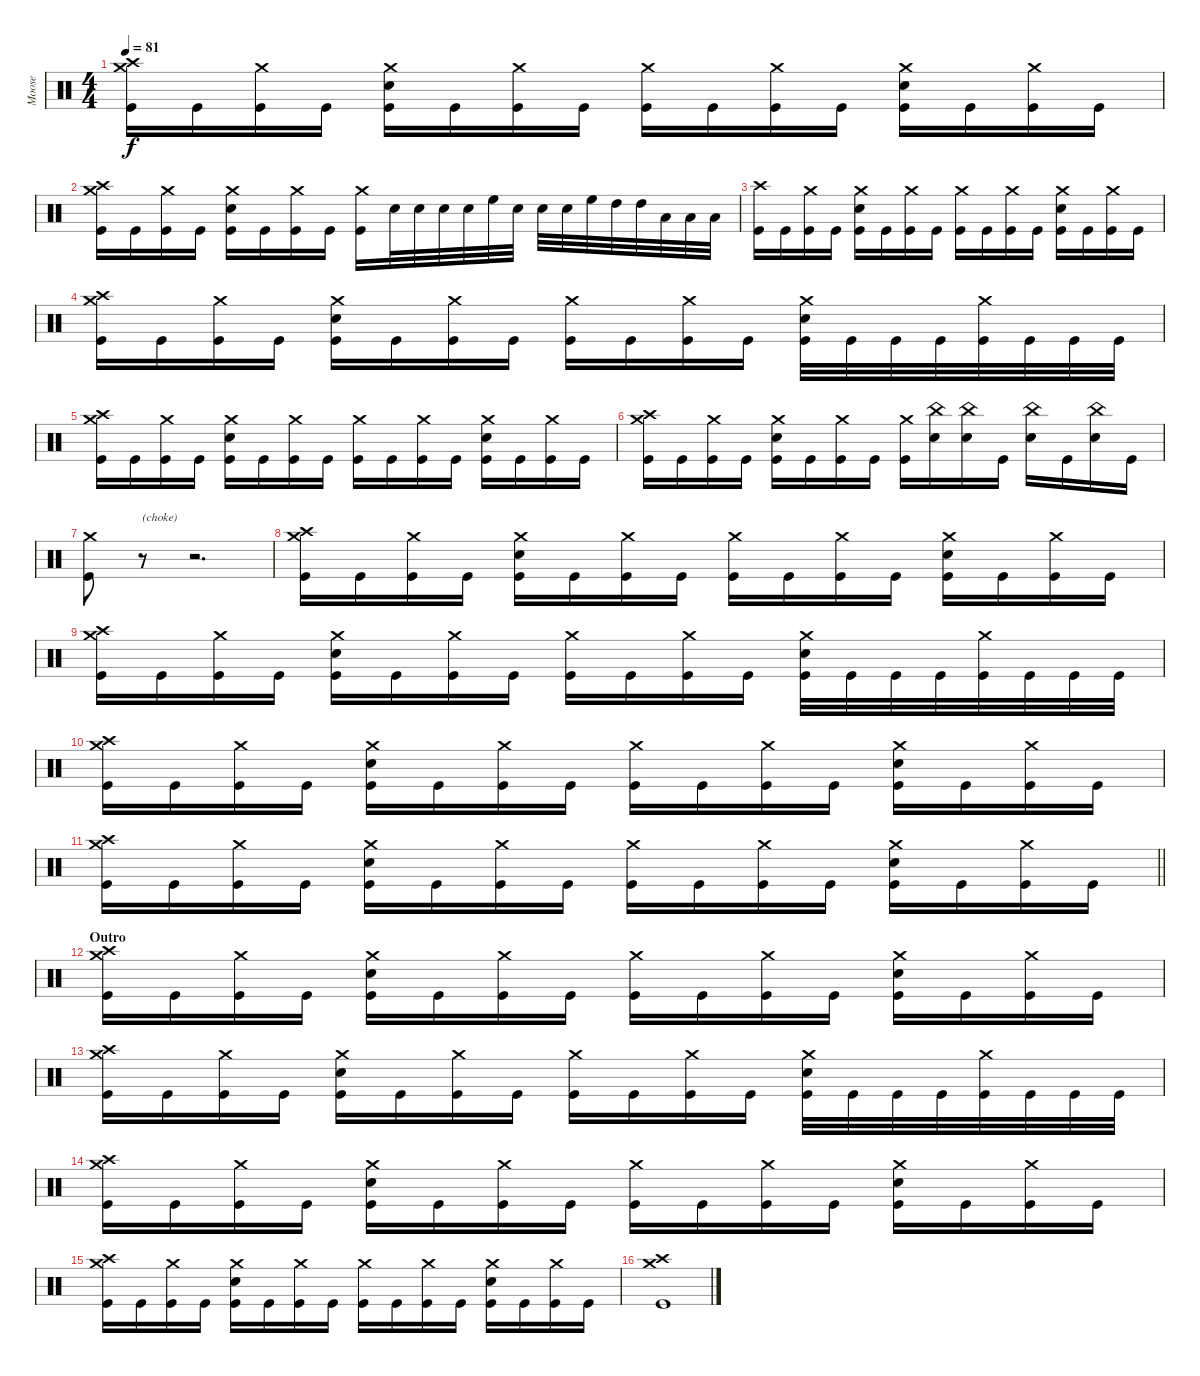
\track ("Moose" "Moose") {instrument percussion}
\staff {score}
\articulation defaults
\ts (4 4)
\tempo 81
\clef neutral
\ks c
("Crash high (hit)" "Crash medium (hit)" "Kick (hit)").16{dy f} "Kick (hit)".16 ("Crash medium (hit)" "Kick (hit)").16 "Kick (hit)".16 ("Crash medium (hit)" "Electric Snare (hit)" "Kick (hit)").16 "Kick (hit)".16 ("Crash medium (hit)" "Kick (hit)").16 "Kick (hit)".16 ("Crash medium (hit)" "Kick (hit)").16 "Kick (hit)".16 ("Crash medium (hit)" "Kick (hit)").16 "Kick (hit)".16 ("Crash medium (hit)" "Electric Snare (hit)" "Kick (hit)").16 "Kick (hit)".16 ("Crash medium (hit)" "Kick (hit)").16 "Kick (hit)".16 |
("Crash high (hit)" "Crash medium (hit)" "Kick (hit)").16 "Kick (hit)".16 ("Crash medium (hit)" "Kick (hit)").16 "Kick (hit)".16 ("Crash medium (hit)" "Electric Snare (hit)" "Kick (hit)").16 "Kick (hit)".16 ("Crash medium (hit)" "Kick (hit)").16 "Kick (hit)".16 ("Crash medium (hit)" "Kick (hit)").16 "Electric Snare (hit)".32 "Electric Snare (hit)".32 "Electric Snare (hit)".32 "Electric Snare (hit)".32 "High Floor Tom (hit)".32 "Electric Snare (hit)".32 "Electric Snare (hit)".32 "Electric Snare (hit)".32 "High Floor Tom (hit)".32 "High Tom (hit)".32 "High Tom (hit)".32 "Low Tom (hit)".32 "Low Tom (hit)".32 "Low Tom (hit)".32 |
("Crash high (hit)" "Kick (hit)").16 "Kick (hit)".16 ("Crash medium (hit)" "Kick (hit)").16 "Kick (hit)".16 ("Crash medium (hit)" "Electric Snare (hit)" "Kick (hit)").16 "Kick (hit)".16 ("Crash medium (hit)" "Kick (hit)").16 "Kick (hit)".16 ("Crash medium (hit)" "Kick (hit)").16 "Kick (hit)".16 ("Crash medium (hit)" "Kick (hit)").16 "Kick (hit)".16 ("Crash medium (hit)" "Electric Snare (hit)" "Kick (hit)").16 "Kick (hit)".16 ("Crash medium (hit)" "Kick (hit)").16 "Kick (hit)".16 |
("Crash high (hit)" "Crash medium (hit)" "Kick (hit)").16 "Kick (hit)".16 ("Crash medium (hit)" "Kick (hit)").16 "Kick (hit)".16 ("Crash medium (hit)" "Electric Snare (hit)" "Kick (hit)").16 "Kick (hit)".16 ("Crash medium (hit)" "Kick (hit)").16 "Kick (hit)".16 ("Crash medium (hit)" "Kick (hit)").16 "Kick (hit)".16 ("Crash medium (hit)" "Kick (hit)").16 "Kick (hit)".16 ("Crash medium (hit)" "Electric Snare (hit)" "Kick (hit)").32 "Kick (hit)".32 "Kick (hit)".32 "Kick (hit)".32 ("Crash medium (hit)" "Kick (hit)").32 "Kick (hit)".32 "Kick (hit)".32 "Kick (hit)".32 |
("Crash high (hit)" "Crash medium (hit)" "Kick (hit)").16 "Kick (hit)".16 ("Crash medium (hit)" "Kick (hit)").16 "Kick (hit)".16 ("Crash medium (hit)" "Electric Snare (hit)" "Kick (hit)").16 "Kick (hit)".16 ("Crash medium (hit)" "Kick (hit)").16 "Kick (hit)".16 ("Crash medium (hit)" "Kick (hit)").16 "Kick (hit)".16 ("Crash medium (hit)" "Kick (hit)").16 "Kick (hit)".16 ("Crash medium (hit)" "Electric Snare (hit)" "Kick (hit)").16 "Kick (hit)".16 ("Crash medium (hit)" "Kick (hit)").16 "Kick (hit)".16 |
("Crash high (hit)" "Crash medium (hit)" "Kick (hit)").16 "Kick (hit)".16 ("Crash medium (hit)" "Kick (hit)").16 "Kick (hit)".16 ("Crash medium (hit)" "Electric Snare (hit)" "Kick (hit)").16 "Kick (hit)".16 ("Crash medium (hit)" "Kick (hit)").16 "Kick (hit)".16 ("Crash medium (hit)" "Kick (hit)").16 ("China (hit)" "Electric Snare (hit)").16 ("China (hit)" "Electric Snare (hit)").16 "Kick (hit)".16 ("China (hit)" "Electric Snare (hit)").16 "Kick (hit)".16 ("China (hit)" "Electric Snare (hit)").16 "Kick (hit)".16 |
("Crash medium (hit)" "Kick (hit)").8 r.8{txt "(choke)"} r.2{d} |
("Crash high (hit)" "Crash medium (hit)" "Kick (hit)").16 "Kick (hit)".16 ("Crash medium (hit)" "Kick (hit)").16 "Kick (hit)".16 ("Crash medium (hit)" "Electric Snare (hit)" "Kick (hit)").16 "Kick (hit)".16 ("Crash medium (hit)" "Kick (hit)").16 "Kick (hit)".16 ("Crash medium (hit)" "Kick (hit)").16 "Kick (hit)".16 ("Crash medium (hit)" "Kick (hit)").16 "Kick (hit)".16 ("Crash medium (hit)" "Electric Snare (hit)" "Kick (hit)").16 "Kick (hit)".16 ("Crash medium (hit)" "Kick (hit)").16 "Kick (hit)".16 |
("Crash high (hit)" "Crash medium (hit)" "Kick (hit)").16 "Kick (hit)".16 ("Crash medium (hit)" "Kick (hit)").16 "Kick (hit)".16 ("Crash medium (hit)" "Electric Snare (hit)" "Kick (hit)").16 "Kick (hit)".16 ("Crash medium (hit)" "Kick (hit)").16 "Kick (hit)".16 ("Crash medium (hit)" "Kick (hit)").16 "Kick (hit)".16 ("Crash medium (hit)" "Kick (hit)").16 "Kick (hit)".16 ("Crash medium (hit)" "Electric Snare (hit)" "Kick (hit)").32 "Kick (hit)".32 "Kick (hit)".32 "Kick (hit)".32 ("Crash medium (hit)" "Kick (hit)").32 "Kick (hit)".32 "Kick (hit)".32 "Kick (hit)".32 |
("Crash high (hit)" "Crash medium (hit)" "Kick (hit)").16 "Kick (hit)".16 ("Crash medium (hit)" "Kick (hit)").16 "Kick (hit)".16 ("Crash medium (hit)" "Electric Snare (hit)" "Kick (hit)").16 "Kick (hit)".16 ("Crash medium (hit)" "Kick (hit)").16 "Kick (hit)".16 ("Crash medium (hit)" "Kick (hit)").16 "Kick (hit)".16 ("Crash medium (hit)" "Kick (hit)").16 "Kick (hit)".16 ("Crash medium (hit)" "Electric Snare (hit)" "Kick (hit)").16 "Kick (hit)".16 ("Crash medium (hit)" "Kick (hit)").16 "Kick (hit)".16 |
\barLineRight lightlight
("Crash high (hit)" "Crash medium (hit)" "Kick (hit)").16 "Kick (hit)".16 ("Crash medium (hit)" "Kick (hit)").16 "Kick (hit)".16 ("Crash medium (hit)" "Electric Snare (hit)" "Kick (hit)").16 "Kick (hit)".16 ("Crash medium (hit)" "Kick (hit)").16 "Kick (hit)".16 ("Crash medium (hit)" "Kick (hit)").16 "Kick (hit)".16 ("Crash medium (hit)" "Kick (hit)").16 "Kick (hit)".16 ("Crash medium (hit)" "Electric Snare (hit)" "Kick (hit)").16 "Kick (hit)".16 ("Crash medium (hit)" "Kick (hit)").16 "Kick (hit)".16 |
\section ("" "Outro")
("Crash high (hit)" "Crash medium (hit)" "Kick (hit)").16 "Kick (hit)".16 ("Crash medium (hit)" "Kick (hit)").16 "Kick (hit)".16 ("Crash medium (hit)" "Electric Snare (hit)" "Kick (hit)").16 "Kick (hit)".16 ("Crash medium (hit)" "Kick (hit)").16 "Kick (hit)".16 ("Crash medium (hit)" "Kick (hit)").16 "Kick (hit)".16 ("Crash medium (hit)" "Kick (hit)").16 "Kick (hit)".16 ("Crash medium (hit)" "Electric Snare (hit)" "Kick (hit)").16 "Kick (hit)".16 ("Crash medium (hit)" "Kick (hit)").16 "Kick (hit)".16 |
("Crash high (hit)" "Crash medium (hit)" "Kick (hit)").16 "Kick (hit)".16 ("Crash medium (hit)" "Kick (hit)").16 "Kick (hit)".16 ("Crash medium (hit)" "Electric Snare (hit)" "Kick (hit)").16 "Kick (hit)".16 ("Crash medium (hit)" "Kick (hit)").16 "Kick (hit)".16 ("Crash medium (hit)" "Kick (hit)").16 "Kick (hit)".16 ("Crash medium (hit)" "Kick (hit)").16 "Kick (hit)".16 ("Crash medium (hit)" "Electric Snare (hit)" "Kick (hit)").32 "Kick (hit)".32 "Kick (hit)".32 "Kick (hit)".32 ("Crash medium (hit)" "Kick (hit)").32 "Kick (hit)".32 "Kick (hit)".32 "Kick (hit)".32 |
("Crash high (hit)" "Crash medium (hit)" "Kick (hit)").16 "Kick (hit)".16 ("Crash medium (hit)" "Kick (hit)").16 "Kick (hit)".16 ("Crash medium (hit)" "Electric Snare (hit)" "Kick (hit)").16 "Kick (hit)".16 ("Crash medium (hit)" "Kick (hit)").16 "Kick (hit)".16 ("Crash medium (hit)" "Kick (hit)").16 "Kick (hit)".16 ("Crash medium (hit)" "Kick (hit)").16 "Kick (hit)".16 ("Crash medium (hit)" "Electric Snare (hit)" "Kick (hit)").16 "Kick (hit)".16 ("Crash medium (hit)" "Kick (hit)").16 "Kick (hit)".16 |
("Crash high (hit)" "Crash medium (hit)" "Kick (hit)").16 "Kick (hit)".16 ("Crash medium (hit)" "Kick (hit)").16 "Kick (hit)".16 ("Crash medium (hit)" "Electric Snare (hit)" "Kick (hit)").16 "Kick (hit)".16 ("Crash medium (hit)" "Kick (hit)").16 "Kick (hit)".16 ("Crash medium (hit)" "Kick (hit)").16 "Kick (hit)".16 ("Crash medium (hit)" "Kick (hit)").16 "Kick (hit)".16 ("Crash medium (hit)" "Electric Snare (hit)" "Kick (hit)").16 "Kick (hit)".16 ("Crash medium (hit)" "Kick (hit)").16 "Kick (hit)".16 |
("Crash high (hit)" "Crash medium (hit)" "Kick (hit)").1
